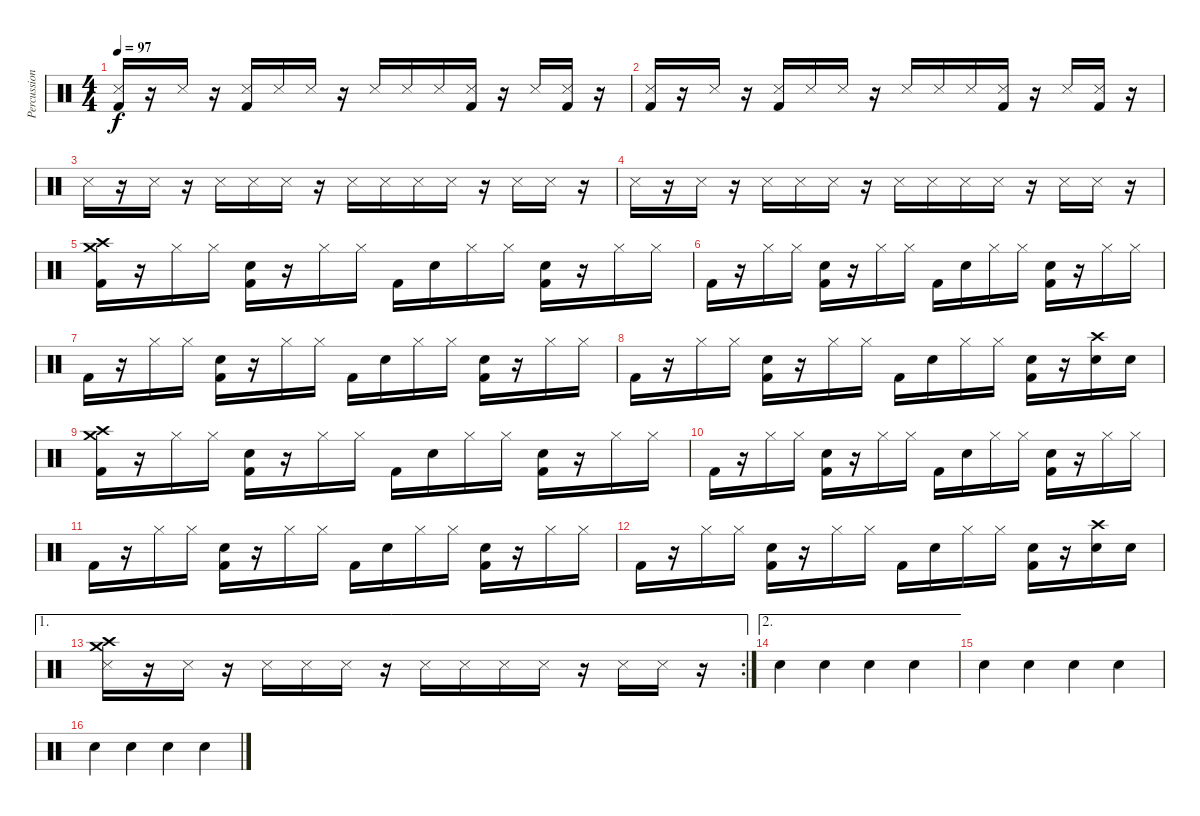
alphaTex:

\track ("Percussions" "Percussion") {instrument percussion}
\staff {score}
\articulation defaults
\ts (4 4)
\tempo 97
\clef neutral
\ks c
("Snare (side stick) 3" "Kick (hit) 2").16{dy f} r.16 "Snare (side stick) 3".16 r.16 ("Snare (side stick) 3" "Kick (hit) 2").16 "Snare (side stick) 3".16 "Snare (side stick) 3".16 r.16 "Snare (side stick) 3".16 "Snare (side stick) 3".16 "Snare (side stick) 3".16 ("Snare (side stick) 3" "Kick (hit) 2").16 r.16 "Snare (side stick) 3".16 ("Snare (side stick) 3" "Kick (hit) 2").16 r.16 |
("Snare (side stick) 3" "Kick (hit) 2").16 r.16 "Snare (side stick) 3".16 r.16 ("Snare (side stick) 3" "Kick (hit) 2").16 "Snare (side stick) 3".16 "Snare (side stick) 3".16 r.16 "Snare (side stick) 3".16 "Snare (side stick) 3".16 "Snare (side stick) 3".16 ("Snare (side stick) 3" "Kick (hit) 2").16 r.16 "Snare (side stick) 3".16 ("Snare (side stick) 3" "Kick (hit) 2").16 r.16 |
"Snare (side stick) 3".16 r.16 "Snare (side stick) 3".16 r.16 "Snare (side stick) 3".16 "Snare (side stick) 3".16 "Snare (side stick) 3".16 r.16 "Snare (side stick) 3".16 "Snare (side stick) 3".16 "Snare (side stick) 3".16 "Snare (side stick) 3".16 r.16 "Snare (side stick) 3".16 "Snare (side stick) 3".16 r.16 |
"Snare (side stick) 3".16 r.16 "Snare (side stick) 3".16 r.16 "Snare (side stick) 3".16 "Snare (side stick) 3".16 "Snare (side stick) 3".16 r.16 "Snare (side stick) 3".16 "Snare (side stick) 3".16 "Snare (side stick) 3".16 "Snare (side stick) 3".16 r.16 "Snare (side stick) 3".16 "Snare (side stick) 3".16 r.16 |
("Crash medium (hit)" "Crash high (hit)" "Kick (hit) 2").16 r.16 "Hi-Hat (closed)".16 "Hi-Hat (closed)".16 ("Snare (hit) 2" "Kick (hit) 2").16 r.16 "Hi-Hat (closed)".16 "Hi-Hat (closed)".16 "Kick (hit) 2".16 "Snare (hit) 2".16 "Hi-Hat (closed)".16 "Hi-Hat (closed)".16 ("Snare (hit) 2" "Kick (hit) 2").16 r.16 "Hi-Hat (closed)".16 "Hi-Hat (closed)".16 |
"Kick (hit) 2".16 r.16 "Hi-Hat (closed)".16 "Hi-Hat (closed)".16 ("Snare (hit) 2" "Kick (hit) 2").16 r.16 "Hi-Hat (closed)".16 "Hi-Hat (closed)".16 "Kick (hit) 2".16 "Snare (hit) 2".16 "Hi-Hat (closed)".16 "Hi-Hat (closed)".16 ("Snare (hit) 2" "Kick (hit) 2").16 r.16 "Hi-Hat (closed)".16 "Hi-Hat (closed)".16 |
"Kick (hit) 2".16 r.16 "Hi-Hat (closed)".16 "Hi-Hat (closed)".16 ("Snare (hit) 2" "Kick (hit) 2").16 r.16 "Hi-Hat (closed)".16 "Hi-Hat (closed)".16 "Kick (hit) 2".16 "Snare (hit) 2".16 "Hi-Hat (closed)".16 "Hi-Hat (closed)".16 ("Snare (hit) 2" "Kick (hit) 2").16 r.16 "Hi-Hat (closed)".16 "Hi-Hat (closed)".16 |
"Kick (hit) 2".16 r.16 "Hi-Hat (closed)".16 "Hi-Hat (closed)".16 ("Snare (hit) 2" "Kick (hit) 2").16 r.16 "Hi-Hat (closed)".16 "Hi-Hat (closed)".16 "Kick (hit) 2".16 "Snare (hit) 2".16 "Hi-Hat (closed)".16 "Hi-Hat (closed)".16 ("Snare (hit) 2" "Kick (hit) 2").16 r.16 ("Crash high (hit)" "Snare (hit) 2").16 "Snare (hit) 2".16 |
("Crash medium (hit)" "Crash high (hit)" "Kick (hit) 2").16 r.16 "Hi-Hat (closed)".16 "Hi-Hat (closed)".16 ("Snare (hit) 2" "Kick (hit) 2").16 r.16 "Hi-Hat (closed)".16 "Hi-Hat (closed)".16 "Kick (hit) 2".16 "Snare (hit) 2".16 "Hi-Hat (closed)".16 "Hi-Hat (closed)".16 ("Snare (hit) 2" "Kick (hit) 2").16 r.16 "Hi-Hat (closed)".16 "Hi-Hat (closed)".16 |
"Kick (hit) 2".16 r.16 "Hi-Hat (closed)".16 "Hi-Hat (closed)".16 ("Snare (hit) 2" "Kick (hit) 2").16 r.16 "Hi-Hat (closed)".16 "Hi-Hat (closed)".16 "Kick (hit) 2".16 "Snare (hit) 2".16 "Hi-Hat (closed)".16 "Hi-Hat (closed)".16 ("Snare (hit) 2" "Kick (hit) 2").16 r.16 "Hi-Hat (closed)".16 "Hi-Hat (closed)".16 |
"Kick (hit) 2".16 r.16 "Hi-Hat (closed)".16 "Hi-Hat (closed)".16 ("Snare (hit) 2" "Kick (hit) 2").16 r.16 "Hi-Hat (closed)".16 "Hi-Hat (closed)".16 "Kick (hit) 2".16 "Snare (hit) 2".16 "Hi-Hat (closed)".16 "Hi-Hat (closed)".16 ("Snare (hit) 2" "Kick (hit) 2").16 r.16 "Hi-Hat (closed)".16 "Hi-Hat (closed)".16 |
"Kick (hit) 2".16 r.16 "Hi-Hat (closed)".16 "Hi-Hat (closed)".16 ("Snare (hit) 2" "Kick (hit) 2").16 r.16 "Hi-Hat (closed)".16 "Hi-Hat (closed)".16 "Kick (hit) 2".16 "Snare (hit) 2".16 "Hi-Hat (closed)".16 "Hi-Hat (closed)".16 ("Snare (hit) 2" "Kick (hit) 2").16 r.16 ("Crash high (hit)" "Snare (hit) 2").16 "Snare (hit) 2".16 |
\ae 1
\rc 2
("Crash medium (hit)" "Crash high (hit)" "Snare (side stick) 3").16 r.16 "Snare (side stick) 3".16 r.16 "Snare (side stick) 3".16 "Snare (side stick) 3".16 "Snare (side stick) 3".16 r.16 "Snare (side stick) 3".16 "Snare (side stick) 3".16 "Snare (side stick) 3".16 "Snare (side stick) 3".16 r.16 "Snare (side stick) 3".16 "Snare (side stick) 3".16 r.16 |
\ae 2 "Hand Clap (hit)".4 "Hand Clap (hit)".4 "Hand Clap (hit)".4 "Hand Clap (hit)".4
|
"Hand Clap (hit)".4 "Hand Clap (hit)".4 "Hand Clap (hit)".4 "Hand Clap (hit)".4 |
"Hand Clap (hit)".4 "Hand Clap (hit)".4 "Hand Clap (hit)".4 "Hand Clap (hit)".4
